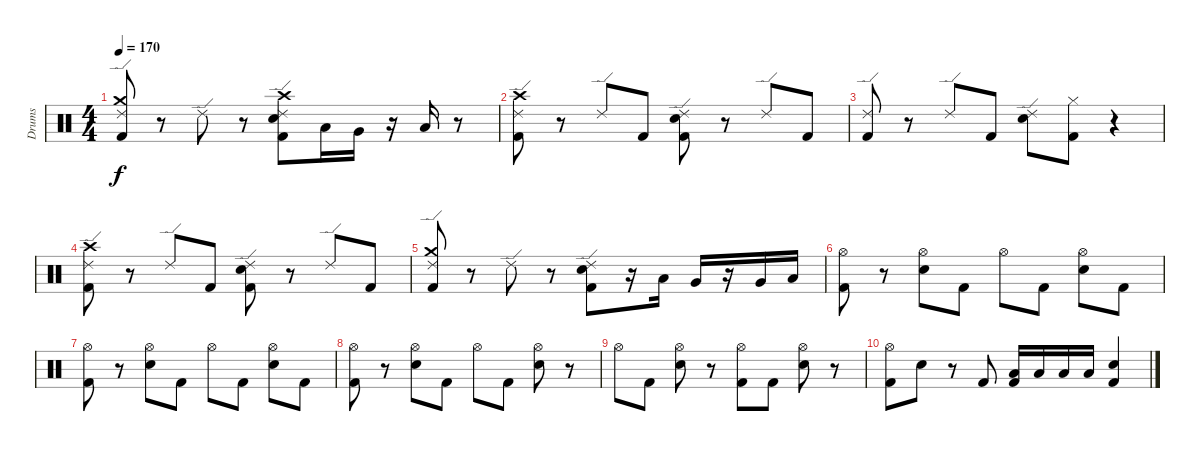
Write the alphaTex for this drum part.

\track ("Drums" "Drums") {instrument percussion}
\staff {score}
\articulation defaults
\ts (4 4)
\tempo 170
\clef neutral
\ks c
("Ride (edge) 2" "Crash medium (hit)" "Kick (hit) 2").8{dy f} r.8 "Ride (edge) 2".8 r.8 ("Ride (edge) 2" "Crash high (hit)" "Electric Snare (hit)" "Kick (hit) 2").8 "Low Tom (hit)".16 "Very Low Tom (hit)".16 r.16 "Low Floor Tom (hit)".16 r.8 |
("Ride (edge) 2" "Crash high (hit)" "Kick (hit) 2").8 r.8 "Ride (edge) 2".8 "Kick (hit) 2".8 ("Ride (edge) 2" "Electric Snare (hit)" "Kick (hit) 2").8 r.8 "Ride (edge) 2".8 "Kick (hit) 2".8 |
("Ride (edge) 2" "Kick (hit) 2").8 r.8 "Ride (edge) 2".8 "Kick (hit) 2".8 ("Ride (edge) 2" "Electric Snare (hit)").8 ("Hi-Hat (closed)" "Kick (hit) 2").8 r.4 |
("Ride (edge) 2" "Crash high (hit)" "Kick (hit) 2").8 r.8 "Ride (edge) 2".8 "Kick (hit) 2".8 ("Ride (edge) 2" "Electric Snare (hit)" "Kick (hit) 2").8 r.8 "Ride (edge) 2".8 "Kick (hit) 2".8 |
("Ride (edge) 2" "Crash medium (hit)" "Kick (hit) 2").8 r.8 "Ride (edge) 2".8 r.8 ("Ride (edge) 2" "Electric Snare (hit)" "Kick (hit) 2").8 r.16 "Low Tom (hit)".16 "Very Low Tom (hit)".16 r.16 "Very Low Tom (hit)".16 "Low Floor Tom (hit)".16 |
("Hi-Hat (open)" "Kick (hit) 2").8 r.8 ("Hi-Hat (open)" "Electric Snare (hit)").8 "Kick (hit) 2".8 "Hi-Hat (open)".8 "Kick (hit) 2".8 ("Hi-Hat (open)" "Electric Snare (hit)").8 "Kick (hit) 2".8 |
("Hi-Hat (open)" "Kick (hit) 2").8 r.8 ("Hi-Hat (open)" "Electric Snare (hit)").8 "Kick (hit) 2".8 "Hi-Hat (open)".8 "Kick (hit) 2".8 ("Hi-Hat (open)" "Electric Snare (hit)").8 "Kick (hit) 2".8 |
("Hi-Hat (open)" "Kick (hit) 2").8 r.8 ("Hi-Hat (open)" "Electric Snare (hit)").8 "Kick (hit) 2".8 "Hi-Hat (open)".8 "Kick (hit) 2".8 ("Hi-Hat (open)" "Electric Snare (hit)").8 r.8 |
"Hi-Hat (open)".8 "Kick (hit) 2".8 ("Hi-Hat (open)" "Electric Snare (hit)").8 r.8 ("Hi-Hat (open)" "Kick (hit) 2").8 "Kick (hit) 2".8 ("Hi-Hat (open)" "Electric Snare (hit)").8 r.8 |
("Hi-Hat (open)" "Kick (hit) 2").8 "Electric Snare (hit)".8 r.8 "Kick (hit) 2".8 ("Low Floor Tom (hit)" "Kick (hit) 2").16 "Low Floor Tom (hit)".16 "Low Floor Tom (hit)".16 "Low Floor Tom (hit)".16 ("Electric Snare (hit)" "Kick (hit) 2").4
